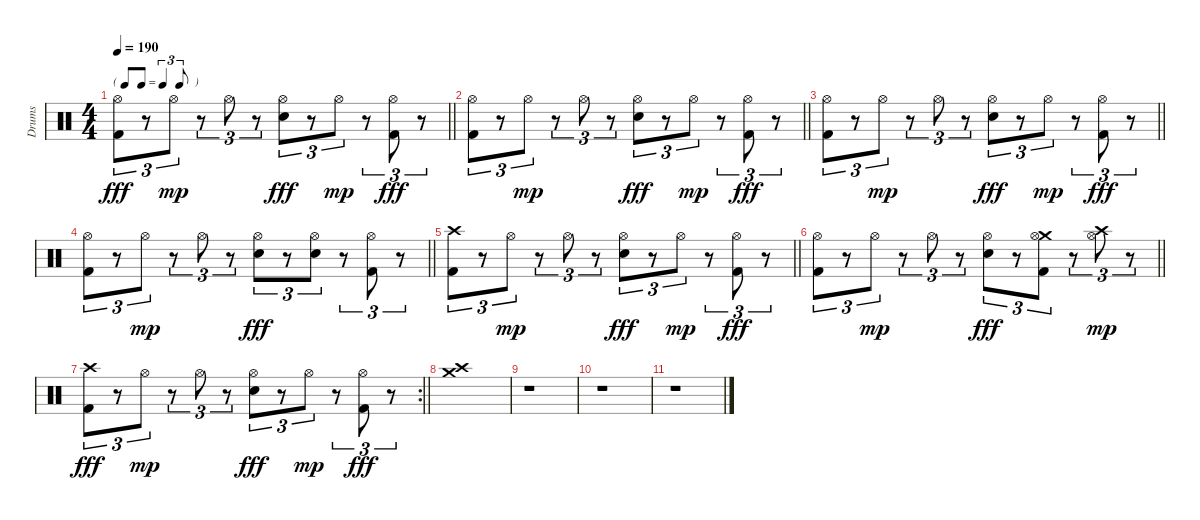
\track ("Drums" "Drums") {instrument percussion}
\staff {score}
\articulation defaults
\ts (4 4)
\tf triplet8th
\tempo 190
\clef neutral
\barLineRight lightlight
\ks c
("Hi-Hat (open)" "Kick (hit) 2").8{tu (3 2) dy fff} r.8{tu (3 2)} "Hi-Hat (open)".8{tu (3 2) dy mp} r.8{tu (3 2)} "Hi-Hat (open)".8{tu (3 2)} r.8{tu (3 2)} ("Hi-Hat (open)" "Electric Snare (hit)").8{tu (3 2) dy fff} r.8{tu (3 2)} "Hi-Hat (open)".8{tu (3 2) dy mp} r.8{tu (3 2)} ("Hi-Hat (open)" "Kick (hit) 2").8{tu (3 2) dy fff} r.8{tu (3 2)} |
\barLineRight lightlight
("Hi-Hat (open)" "Kick (hit) 2").8{tu (3 2)} r.8{tu (3 2)} "Hi-Hat (open)".8{tu (3 2) dy mp} r.8{tu (3 2)} "Hi-Hat (open)".8{tu (3 2)} r.8{tu (3 2)} ("Hi-Hat (open)" "Electric Snare (hit)").8{tu (3 2) dy fff} r.8{tu (3 2)} "Hi-Hat (open)".8{tu (3 2) dy mp} r.8{tu (3 2)} ("Hi-Hat (open)" "Kick (hit) 2").8{tu (3 2) dy fff} r.8{tu (3 2)} |
\barLineRight lightlight
("Hi-Hat (open)" "Kick (hit) 2").8{tu (3 2)} r.8{tu (3 2)} "Hi-Hat (open)".8{tu (3 2) dy mp} r.8{tu (3 2)} "Hi-Hat (open)".8{tu (3 2)} r.8{tu (3 2)} ("Hi-Hat (open)" "Electric Snare (hit)").8{tu (3 2) dy fff} r.8{tu (3 2)} "Hi-Hat (open)".8{tu (3 2) dy mp} r.8{tu (3 2)} ("Hi-Hat (open)" "Kick (hit) 2").8{tu (3 2) dy fff} r.8{tu (3 2)} |
\barLineRight lightlight
("Hi-Hat (open)" "Kick (hit) 2").8{tu (3 2)} r.8{tu (3 2)} "Hi-Hat (open)".8{tu (3 2) dy mp} r.8{tu (3 2)} "Hi-Hat (open)".8{tu (3 2)} r.8{tu (3 2)} ("Hi-Hat (open)" "Electric Snare (hit)").8{tu (3 2) dy fff} r.8{tu (3 2)} ("Hi-Hat (open)" "Electric Snare (hit)").8{tu (3 2)} r.8{tu (3 2)} ("Hi-Hat (open)" "Kick (hit) 2").8{tu (3 2)} r.8{tu (3 2)} |
\barLineRight lightlight
("Crash high (hit)" "Kick (hit) 2").8{tu (3 2)} r.8{tu (3 2)} "Hi-Hat (open)".8{tu (3 2) dy mp} r.8{tu (3 2)} "Hi-Hat (open)".8{tu (3 2)} r.8{tu (3 2)} ("Hi-Hat (open)" "Electric Snare (hit)").8{tu (3 2) dy fff} r.8{tu (3 2)} "Hi-Hat (open)".8{tu (3 2) dy mp} r.8{tu (3 2)} ("Hi-Hat (open)" "Kick (hit) 2").8{tu (3 2) dy fff} r.8{tu (3 2)} |
\barLineRight lightlight
("Hi-Hat (open)" "Kick (hit) 2").8{tu (3 2)} r.8{tu (3 2)} "Hi-Hat (open)".8{tu (3 2) dy mp} r.8{tu (3 2)} "Hi-Hat (open)".8{tu (3 2)} r.8{tu (3 2)} ("Hi-Hat (open)" "Electric Snare (hit)").8{tu (3 2) dy fff} r.8{tu (3 2)} ("Crash medium (hit)" "Hi-Hat (open)" "Kick (hit) 2").8{tu (3 2)} r.8{tu (3 2)} ("Crash high (hit)" "Hi-Hat (open)").8{tu (3 2) dy mp} r.8{tu (3 2)} |
\rc 2
\barLineRight lightlight
("Crash high (hit)" "Kick (hit) 2").8{tu (3 2) dy fff} r.8{tu (3 2)} "Hi-Hat (open)".8{tu (3 2) dy mp} r.8{tu (3 2)} "Hi-Hat (open)".8{tu (3 2)} r.8{tu (3 2)} ("Hi-Hat (open)" "Electric Snare (hit)").8{tu (3 2) dy fff} r.8{tu (3 2)} "Hi-Hat (open)".8{tu (3 2) dy mp} r.8{tu (3 2)} ("Hi-Hat (open)" "Kick (hit) 2").8{tu (3 2) dy fff} r.8{tu (3 2)} |
("Crash high (hit)" "Crash medium (hit)").1 |
r.1 |
r.1 |
r.1
